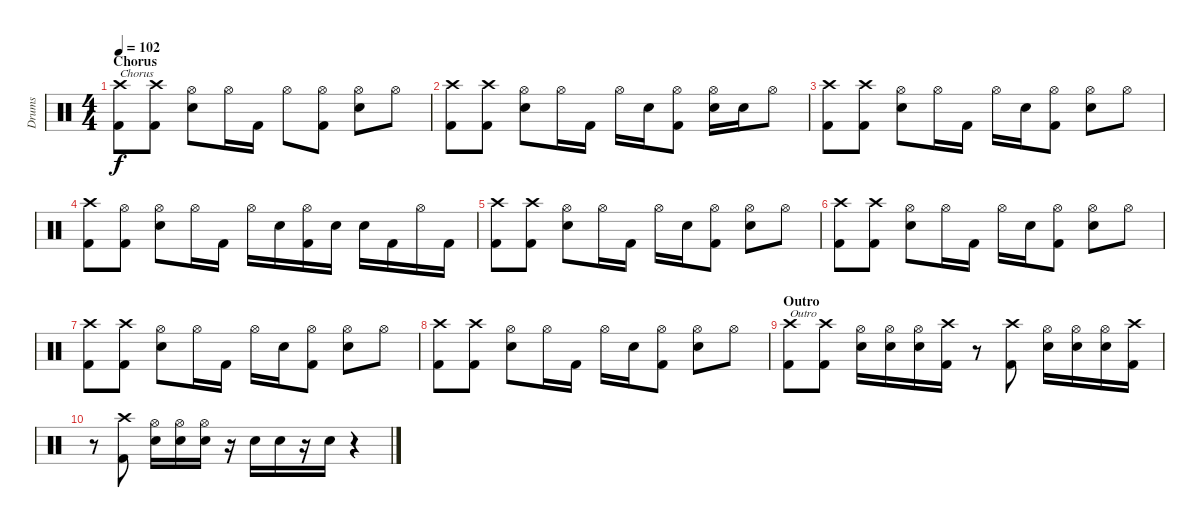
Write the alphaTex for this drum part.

\track ("Drums" "Drums") {instrument percussion}
\staff {score}
\articulation defaults
\ts (4 4)
\section ("" "Chorus")
\tempo 102
\clef neutral
\ks c
("Crash high (hit)" "Kick (hit) 2").8{txt "Chorus" dy f} ("Crash high (hit)" "Kick (hit) 2").8 ("Hi-Hat (open)" "Electric Snare (hit)").8 "Hi-Hat (open)".16 "Kick (hit) 2".16 "Hi-Hat (open)".8 ("Hi-Hat (open)" "Kick (hit) 2").8 ("Hi-Hat (open)" "Electric Snare (hit)").8 "Hi-Hat (open)".8 |
("Crash high (hit)" "Kick (hit) 2").8 ("Crash high (hit)" "Kick (hit) 2").8 ("Hi-Hat (open)" "Electric Snare (hit)").8 "Hi-Hat (open)".16 "Kick (hit) 2".16 "Hi-Hat (open)".16 "Electric Snare (hit)".16 ("Hi-Hat (open)" "Kick (hit) 2").8 ("Hi-Hat (open)" "Electric Snare (hit)").16 "Electric Snare (hit)".16 "Hi-Hat (open)".8 |
("Crash high (hit)" "Kick (hit) 2").8 ("Crash high (hit)" "Kick (hit) 2").8 ("Hi-Hat (open)" "Electric Snare (hit)").8 "Hi-Hat (open)".16 "Kick (hit) 2".16 "Hi-Hat (open)".16 "Electric Snare (hit)".16 ("Hi-Hat (open)" "Kick (hit) 2").8 ("Hi-Hat (open)" "Electric Snare (hit)").8 "Hi-Hat (open)".8 |
("Crash high (hit)" "Kick (hit) 2").8 ("Hi-Hat (open)" "Kick (hit) 2").8 ("Hi-Hat (open)" "Electric Snare (hit)").8 "Hi-Hat (open)".16 "Kick (hit) 2".16 "Hi-Hat (open)".16 "Electric Snare (hit)".16 ("Hi-Hat (open)" "Kick (hit) 2").16 "Electric Snare (hit)".16 "Electric Snare (hit)".16 "Kick (hit) 2".16 "Hi-Hat (open)".16 "Kick (hit) 2".16 |
("Crash high (hit)" "Kick (hit) 2").8 ("Crash high (hit)" "Kick (hit) 2").8 ("Hi-Hat (open)" "Electric Snare (hit)").8 "Hi-Hat (open)".16 "Kick (hit) 2".16 "Hi-Hat (open)".16 "Electric Snare (hit)".16 ("Hi-Hat (open)" "Kick (hit) 2").8 ("Hi-Hat (open)" "Electric Snare (hit)").8 "Hi-Hat (open)".8 |
("Crash high (hit)" "Kick (hit) 2").8 ("Crash high (hit)" "Kick (hit) 2").8 ("Hi-Hat (open)" "Electric Snare (hit)").8 "Hi-Hat (open)".16 "Kick (hit) 2".16 "Hi-Hat (open)".16 "Electric Snare (hit)".16 ("Hi-Hat (open)" "Kick (hit) 2").8 ("Hi-Hat (open)" "Electric Snare (hit)").8 "Hi-Hat (open)".8 |
("Crash high (hit)" "Kick (hit) 2").8 ("Crash high (hit)" "Kick (hit) 2").8 ("Hi-Hat (open)" "Electric Snare (hit)").8 "Hi-Hat (open)".16 "Kick (hit) 2".16 "Hi-Hat (open)".16 "Electric Snare (hit)".16 ("Hi-Hat (open)" "Kick (hit) 2").8 ("Hi-Hat (open)" "Electric Snare (hit)").8 "Hi-Hat (open)".8 |
("Crash high (hit)" "Kick (hit) 2").8 ("Crash high (hit)" "Kick (hit) 2").8 ("Hi-Hat (open)" "Electric Snare (hit)").8 "Hi-Hat (open)".16 "Kick (hit) 2".16 "Hi-Hat (open)".16 "Electric Snare (hit)".16 ("Hi-Hat (open)" "Kick (hit) 2").8 ("Hi-Hat (open)" "Electric Snare (hit)").8 "Hi-Hat (open)".8 |
\section ("" "Outro")
("Crash high (hit)" "Kick (hit) 2").8{txt "Outro"} ("Crash high (hit)" "Kick (hit) 2").8 ("Hi-Hat (open)" "Electric Snare (hit)").16 ("Hi-Hat (open)" "Electric Snare (hit)").16 ("Hi-Hat (open)" "Electric Snare (hit)").16 ("Crash high (hit)" "Kick (hit) 2").16 r.8 ("Crash high (hit)" "Kick (hit) 2").8 ("Hi-Hat (open)" "Electric Snare (hit)").16 ("Hi-Hat (open)" "Electric Snare (hit)").16 ("Hi-Hat (open)" "Electric Snare (hit)").16 ("Crash high (hit)" "Kick (hit) 2").16 |
r.8 ("Crash high (hit)" "Kick (hit) 2").8 ("Hi-Hat (open)" "Electric Snare (hit)").16 ("Hi-Hat (open)" "Electric Snare (hit)").16 ("Hi-Hat (open)" "Electric Snare (hit)").16 r.16 "Electric Snare (hit)".16 "Electric Snare (hit)".16 r.16 "Electric Snare (hit)".16 r.4
